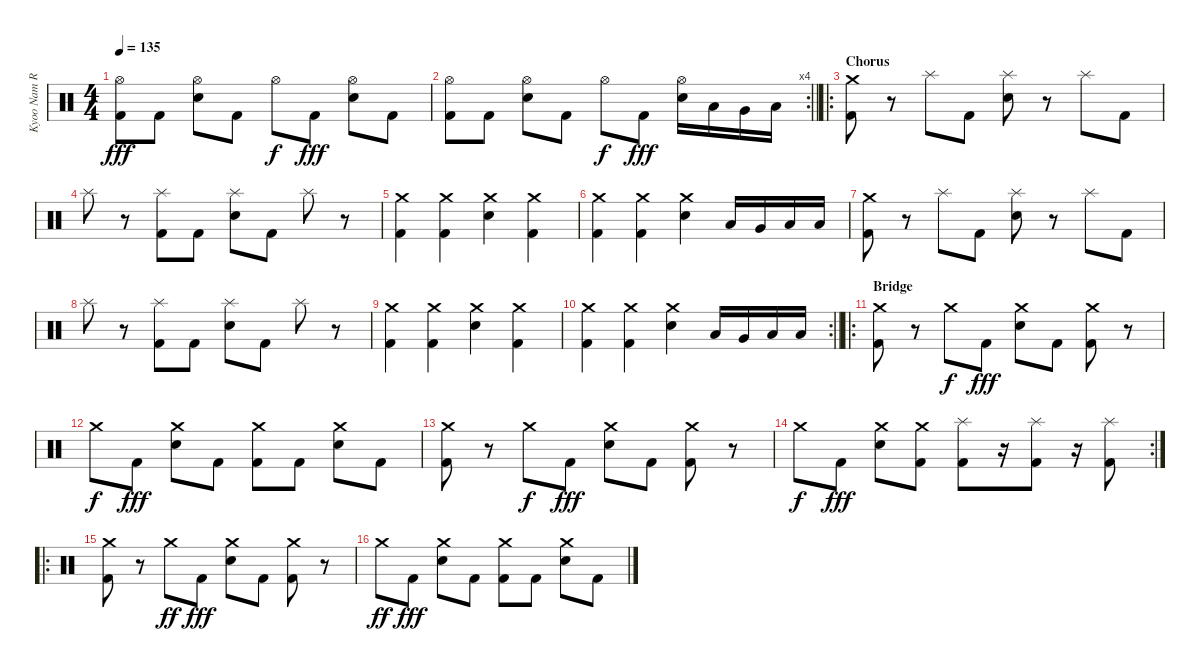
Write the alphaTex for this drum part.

\track ("Kyoo Nam Rossi (Drums)" "Kyoo Nam R") {instrument percussion}
\staff {score}
\articulation defaults
\ts (4 4)
\tempo 135
\clef neutral
\ks c
("Hi-Hat (open)" "Kick (hit) 2").8{dy fff} "Kick (hit) 2".8 ("Hi-Hat (open)" "Electric Snare (hit)").8 "Kick (hit) 2".8 "Hi-Hat (open)".8{dy f} "Kick (hit) 2".8{dy fff} ("Hi-Hat (open)" "Electric Snare (hit)").8 "Kick (hit) 2".8 |
\rc 4
\barLineRight lightlight
("Hi-Hat (open)" "Kick (hit) 2").8 "Kick (hit) 2".8 ("Hi-Hat (open)" "Electric Snare (hit)").8 "Kick (hit) 2".8 "Hi-Hat (open)".8{dy f} "Kick (hit) 2".8{dy fff} ("Hi-Hat (open)" "Electric Snare (hit)").16 "Low Tom (hit)".16 "Very Low Tom (hit)".16 "Low Floor Tom (hit)".16 |
\ro
\section ("" "Chorus")
("Crash medium (hit)" "Kick (hit) 2").8 r.8 "Splash (hit)".8 "Kick (hit) 2".8 ("Splash (hit)" "Electric Snare (hit)").8 r.8 "Splash (hit)".8 "Kick (hit) 2".8 |
"Splash (hit)".8 r.8 ("Splash (hit)" "Kick (hit) 2").8 "Kick (hit) 2".8 ("Splash (hit)" "Electric Snare (hit)").8 "Kick (hit) 2".8 "Splash (hit)".8 r.8 |
("Crash medium (hit)" "Kick (hit) 2").4 ("Crash medium (hit)" "Kick (hit) 2").4 ("Crash medium (hit)" "Electric Snare (hit)").4 ("Crash medium (hit)" "Kick (hit) 2").4 |
("Crash medium (hit)" "Kick (hit) 2").4 ("Crash medium (hit)" "Kick (hit) 2").4 ("Crash medium (hit)" "Electric Snare (hit)").4 "Low Tom (hit)".16 "Very Low Tom (hit)".16 "Low Tom (hit)".16 "Low Floor Tom (hit)".16 |
("Crash medium (hit)" "Kick (hit) 2").8 r.8 "Splash (hit)".8 "Kick (hit) 2".8 ("Splash (hit)" "Electric Snare (hit)").8 r.8 "Splash (hit)".8 "Kick (hit) 2".8 |
"Splash (hit)".8 r.8 ("Splash (hit)" "Kick (hit) 2").8 "Kick (hit) 2".8 ("Splash (hit)" "Electric Snare (hit)").8 "Kick (hit) 2".8 "Splash (hit)".8 r.8 |
("Crash medium (hit)" "Kick (hit) 2").4 ("Crash medium (hit)" "Kick (hit) 2").4 ("Crash medium (hit)" "Electric Snare (hit)").4 ("Crash medium (hit)" "Kick (hit) 2").4 |
\rc 2
\barLineRight lightlight
("Crash medium (hit)" "Kick (hit) 2").4 ("Crash medium (hit)" "Kick (hit) 2").4 ("Crash medium (hit)" "Electric Snare (hit)").4 "Low Tom (hit)".16 "Very Low Tom (hit)".16 "Low Tom (hit)".16 "Low Floor Tom (hit)".16 |
\ro
\section ("" "Bridge")
("Crash medium (hit)" "Kick (hit) 2").8 r.8 "Crash medium (hit)".8{dy f} "Kick (hit) 2".8{dy fff} ("Crash medium (hit)" "Electric Snare (hit)").8 "Kick (hit) 2".8 ("Crash medium (hit)" "Kick (hit) 2").8 r.8 |
"Crash medium (hit)".8{dy f} "Kick (hit) 2".8{dy fff} ("Crash medium (hit)" "Electric Snare (hit)").8 "Kick (hit) 2".8 ("Crash medium (hit)" "Kick (hit) 2").8 "Kick (hit) 2".8 ("Crash medium (hit)" "Electric Snare (hit)").8 "Kick (hit) 2".8 |
("Crash medium (hit)" "Kick (hit) 2").8 r.8 "Crash medium (hit)".8{dy f} "Kick (hit) 2".8{dy fff} ("Crash medium (hit)" "Electric Snare (hit)").8 "Kick (hit) 2".8 ("Crash medium (hit)" "Kick (hit) 2").8 r.8 |
\rc 2 "Crash medium (hit)".8{dy f} "Kick (hit) 2".8{dy fff}
("Crash medium (hit)" "Electric Snare (hit)").8 ("Crash medium (hit)" "Kick (hit) 2").8 ("Splash (hit)" "Kick (hit) 2").8 r.16 ("Splash (hit)" "Kick (hit) 2").8 r.16 ("Splash (hit)" "Kick (hit) 2").8 |
\ro
("Crash medium (hit)" "Kick (hit) 2").8 r.8 "Crash medium (hit)".8{dy ff} "Kick (hit) 2".8{dy fff} ("Crash medium (hit)" "Electric Snare (hit)").8 "Kick (hit) 2".8 ("Crash medium (hit)" "Kick (hit) 2").8 r.8 |
"Crash medium (hit)".8{dy ff} "Kick (hit) 2".8{dy fff} ("Crash medium (hit)" "Electric Snare (hit)").8 "Kick (hit) 2".8 ("Crash medium (hit)" "Kick (hit) 2").8 "Kick (hit) 2".8 ("Crash medium (hit)" "Electric Snare (hit)").8 "Kick (hit) 2".8
